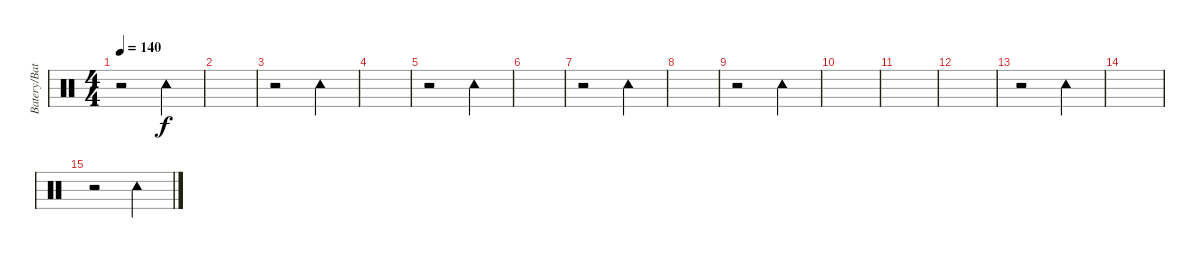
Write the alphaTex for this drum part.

\track ("Batery/Bateria" "Batery/Bat") {instrument percussion}
\staff {score}
\articulation defaults
\ts (4 4)
\tempo 140
\clef neutral
\ks c
r.2{dy f} "Tambourine (hit)".4 |
|
r.2 "Tambourine (hit)".4 |
|
r.2 "Tambourine (hit)".4 |
|
r.2 "Tambourine (hit)".4 |
|
r.2 "Tambourine (hit)".4 |
|
|
|
r.2 "Tambourine (hit)".4 |
|
r.2 "Tambourine (hit)".4
